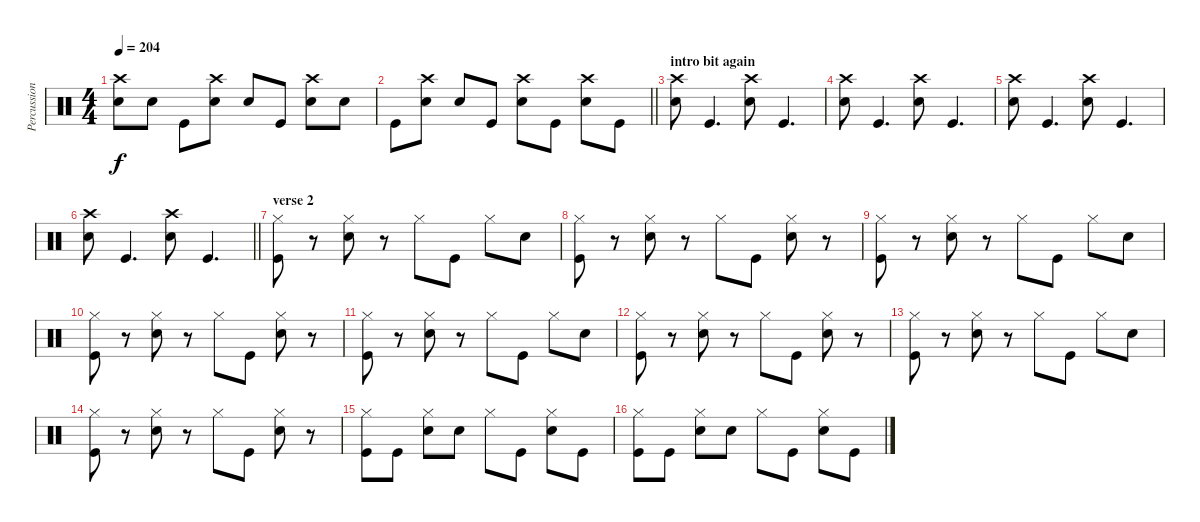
\track ("Percussion" "Percussion") {instrument percussion}
\staff {score}
\articulation defaults
\ts (4 4)
\tempo 204
\clef neutral
\ks c
("Crash high (hit)" "Snare (hit) 2").8{dy f} "Snare (hit) 2".8 "Kick (hit)".8 ("Crash high (hit)" "Snare (hit) 2").8 "Snare (hit) 2".8 "Kick (hit)".8 ("Crash high (hit)" "Snare (hit) 2").8 "Snare (hit) 2".8 |
\barLineRight lightlight "Kick (hit)".8
("Crash high (hit)" "Snare (hit) 2").8 "Snare (hit) 2".8 "Kick (hit)".8 ("Crash high (hit)" "Snare (hit) 2").8 "Kick (hit)".8 ("Crash high (hit)" "Snare (hit) 2").8 "Kick (hit)".8 |
\section ("" "intro bit again")
("Crash high (hit)" "Snare (hit) 2").8 "Kick (hit)".4{d} ("Crash high (hit)" "Snare (hit) 2").8 "Kick (hit)".4{d} |
("Crash high (hit)" "Snare (hit) 2").8 "Kick (hit)".4{d} ("Crash high (hit)" "Snare (hit) 2").8 "Kick (hit)".4{d} |
("Crash high (hit)" "Snare (hit) 2").8 "Kick (hit)".4{d} ("Crash high (hit)" "Snare (hit) 2").8 "Kick (hit)".4{d} |
\barLineRight lightlight
("Crash high (hit)" "Snare (hit) 2").8 "Kick (hit)".4{d} ("Crash high (hit)" "Snare (hit) 2").8 "Kick (hit)".4{d} |
\section ("" "verse 2")
("Hi-Hat (closed)" "Kick (hit)").8 r.8 ("Hi-Hat (closed)" "Snare (hit) 2").8 r.8 "Hi-Hat (closed)".8 "Kick (hit)".8 "Hi-Hat (closed)".8 "Snare (hit) 2".8 |
("Hi-Hat (closed)" "Kick (hit)").8 r.8 ("Hi-Hat (closed)" "Snare (hit) 2").8 r.8 "Hi-Hat (closed)".8 "Kick (hit)".8 ("Hi-Hat (closed)" "Snare (hit) 2").8 r.8 |
("Hi-Hat (closed)" "Kick (hit)").8 r.8 ("Hi-Hat (closed)" "Snare (hit) 2").8 r.8 "Hi-Hat (closed)".8 "Kick (hit)".8 "Hi-Hat (closed)".8 "Snare (hit) 2".8 |
("Hi-Hat (closed)" "Kick (hit)").8 r.8 ("Hi-Hat (closed)" "Snare (hit) 2").8 r.8 "Hi-Hat (closed)".8 "Kick (hit)".8 ("Hi-Hat (closed)" "Snare (hit) 2").8 r.8 |
("Hi-Hat (closed)" "Kick (hit)").8 r.8 ("Hi-Hat (closed)" "Snare (hit) 2").8 r.8 "Hi-Hat (closed)".8 "Kick (hit)".8 "Hi-Hat (closed)".8 "Snare (hit) 2".8 |
("Hi-Hat (closed)" "Kick (hit)").8 r.8 ("Hi-Hat (closed)" "Snare (hit) 2").8 r.8 "Hi-Hat (closed)".8 "Kick (hit)".8 ("Hi-Hat (closed)" "Snare (hit) 2").8 r.8 |
("Hi-Hat (closed)" "Kick (hit)").8 r.8 ("Hi-Hat (closed)" "Snare (hit) 2").8 r.8 "Hi-Hat (closed)".8 "Kick (hit)".8 "Hi-Hat (closed)".8 "Snare (hit) 2".8 |
("Hi-Hat (closed)" "Kick (hit)").8 r.8 ("Hi-Hat (closed)" "Snare (hit) 2").8 r.8 "Hi-Hat (closed)".8 "Kick (hit)".8 ("Hi-Hat (closed)" "Snare (hit) 2").8 r.8 |
("Hi-Hat (closed)" "Kick (hit)").8 "Kick (hit)".8 ("Hi-Hat (closed)" "Snare (hit) 2").8 "Snare (hit) 2".8 "Hi-Hat (closed)".8 "Kick (hit)".8 ("Hi-Hat (closed)" "Snare (hit) 2").8 "Kick (hit)".8 |
("Hi-Hat (closed)" "Kick (hit)").8 "Kick (hit)".8 ("Hi-Hat (closed)" "Snare (hit) 2").8 "Snare (hit) 2".8 "Hi-Hat (closed)".8 "Kick (hit)".8 ("Hi-Hat (closed)" "Snare (hit) 2").8 "Kick (hit)".8
